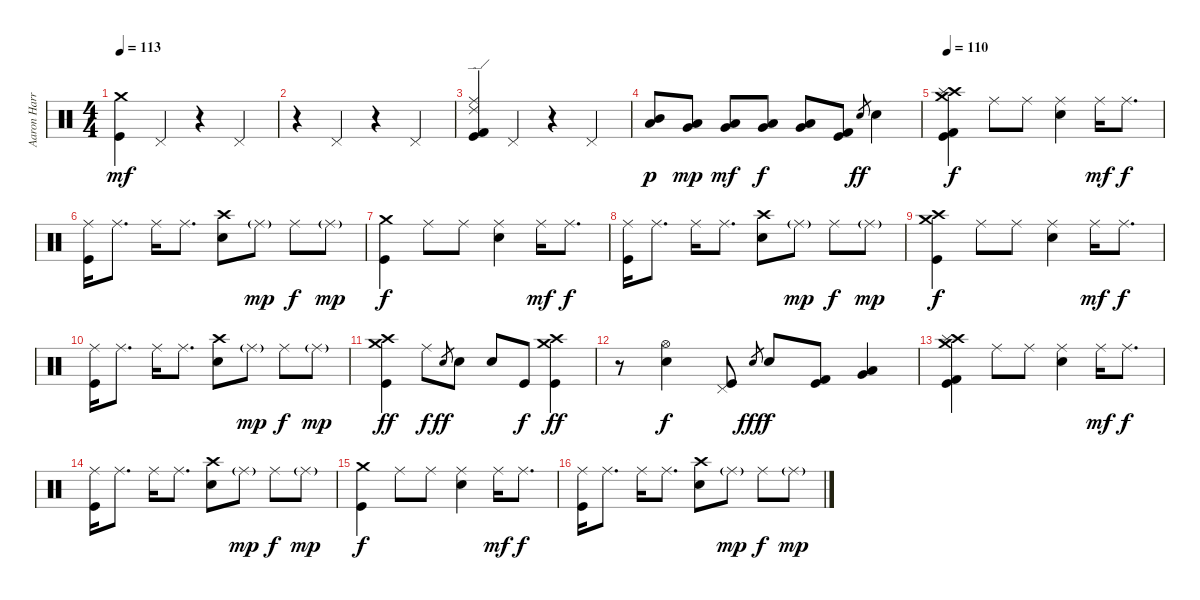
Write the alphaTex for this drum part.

\track ("Aaron Harris" "Aaron Harr") {instrument percussion}
\staff {score}
\articulation defaults
\ts (4 4)
\tempo 113
\clef neutral
\ks c
("Crash medium (hit)" "Kick (hit)").4{dy mf} "Pedal Hi-Hat (hit)".4 r.4 "Pedal Hi-Hat (hit)".4 |
r.4 "Pedal Hi-Hat (hit)".4 r.4 "Pedal Hi-Hat (hit)".4 |
("Ride (middle)" "Ride (edge) 2" "Kick (hit) 2" "Kick (hit)").4 "Pedal Hi-Hat (hit)".4 r.4 "Pedal Hi-Hat (hit)".4 |
("Mid Tom (hit)" "Low Tom (hit)").8{dy p} ("Low Tom (hit)" "Very Low Tom (hit)").8{dy mp} ("Low Tom (hit)" "Very Low Tom (hit)").8{dy mf} ("Low Tom (hit)" "Very Low Tom (hit)").8{dy f} ("Very Low Tom (hit)" "Low Floor Tom (hit)").8 ("Kick (hit) 2" "Kick (hit)").8 "Electric Snare (hit)".8{gr dy ff} "Electric Snare (hit)".4 |
\tempo 110
("Crash medium (hit)" "Crash high (hit)" "Splash (hit)" "Kick (hit) 2" "Kick (hit)").4{dy f} "Ride (middle)".8 "Ride (middle)".8 ("Ride (middle)" "Electric Snare (hit)").4 "Ride (middle)".16{dy mf} "Ride (middle)".8{d dy f} |
("Ride (middle)" "Kick (hit)").16 "Ride (middle)".8{d} "Ride (middle)".16 "Ride (middle)".8{d} ("Crash high (hit)" "Electric Snare (hit)").8 "Ride (middle)"{g}.8{dy mp} "Ride (middle)".8{dy f} "Ride (middle)"{g}.8{dy mp} |
("Crash medium (hit)" "Kick (hit)").4{dy f} "Ride (middle)".8 "Ride (middle)".8 ("Ride (middle)" "Electric Snare (hit)").4 "Ride (middle)".16{dy mf} "Ride (middle)".8{d dy f} |
("Ride (middle)" "Kick (hit)").16 "Ride (middle)".8{d} "Ride (middle)".16 "Ride (middle)".8{d} ("Crash high (hit)" "Electric Snare (hit)").8 "Ride (middle)"{g}.8{dy mp} "Ride (middle)".8{dy f} "Ride (middle)"{g}.8{dy mp} |
("Crash medium (hit)" "Crash high (hit)" "Kick (hit)").4{dy f} "Ride (middle)".8 "Ride (middle)".8 ("Ride (middle)" "Electric Snare (hit)").4 "Ride (middle)".16{dy mf} "Ride (middle)".8{d dy f} |
("Ride (middle)" "Kick (hit)").16 "Ride (middle)".8{d} "Ride (middle)".16 "Ride (middle)".8{d} ("Crash high (hit)" "Electric Snare (hit)").8 "Ride (middle)"{g}.8{dy mp} "Ride (middle)".8{dy f} "Ride (middle)"{g}.8{dy mp} |
("Crash medium (hit)" "Crash high (hit)" "Kick (hit)").4{dy ff} "Ride (middle)".8{dy f} "Electric Snare (hit)".8{gr dy ff} "Electric Snare (hit)".8 "Electric Snare (hit)".8 "Kick (hit)".8{dy f} ("Crash medium (hit)" "Crash high (hit)" "Kick (hit)").4{dy ff} |
r.8 ("Hi-Hat (open)" "Electric Snare (hit)").4{dy f} ("Pedal Hi-Hat (hit)" "Kick (hit)").8 "Electric Snare (hit)".8{gr dy fff} "Electric Snare (hit)".8{dy f} ("Kick (hit) 2" "Kick (hit)").8 ("Low Tom (hit)" "Very Low Tom (hit)").4 |
("Crash medium (hit)" "Crash high (hit)" "Splash (hit)" "Kick (hit) 2" "Kick (hit)").4 "Ride (middle)".8 "Ride (middle)".8 ("Ride (middle)" "Electric Snare (hit)").4 "Ride (middle)".16{dy mf} "Ride (middle)".8{d dy f} |
("Ride (middle)" "Kick (hit)").16 "Ride (middle)".8{d} "Ride (middle)".16 "Ride (middle)".8{d} ("Crash high (hit)" "Electric Snare (hit)").8 "Ride (middle)"{g}.8{dy mp} "Ride (middle)".8{dy f} "Ride (middle)"{g}.8{dy mp} |
("Crash medium (hit)" "Kick (hit)").4{dy f} "Ride (middle)".8 "Ride (middle)".8 ("Ride (middle)" "Electric Snare (hit)").4 "Ride (middle)".16{dy mf} "Ride (middle)".8{d dy f} |
("Ride (middle)" "Kick (hit)").16 "Ride (middle)".8{d} "Ride (middle)".16 "Ride (middle)".8{d} ("Crash high (hit)" "Electric Snare (hit)").8 "Ride (middle)"{g}.8{dy mp} "Ride (middle)".8{dy f} "Ride (middle)"{g}.8{dy mp}
